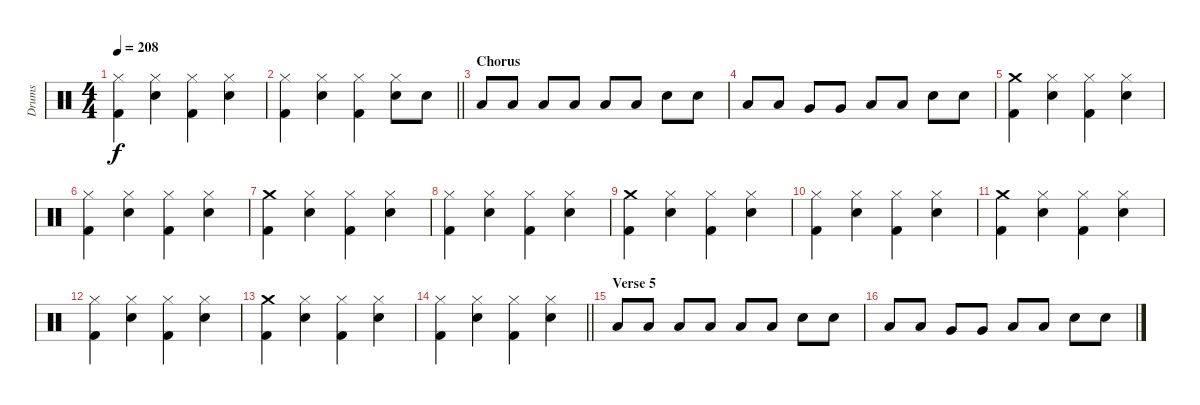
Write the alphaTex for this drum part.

\track ("Drums" "Drums") {instrument percussion}
\staff {score}
\articulation defaults
\ts (4 4)
\tempo 208
\clef neutral
\ks c
("Hi-Hat (closed)" "Kick (hit) 2").4{dy f} ("Hi-Hat (closed)" "Snare (hit) 2").4 ("Hi-Hat (closed)" "Kick (hit) 2").4 ("Hi-Hat (closed)" "Snare (hit) 2").4 |
\barLineRight lightlight
("Hi-Hat (closed)" "Kick (hit) 2").4 ("Hi-Hat (closed)" "Snare (hit) 2").4 ("Hi-Hat (closed)" "Kick (hit) 2").4 ("Hi-Hat (closed)" "Snare (hit) 2").8 "Snare (hit) 2".8 |
\section ("" "Chorus")
"Low Floor Tom (hit)".8 "Low Floor Tom (hit)".8 "Low Tom (hit)".8 "Low Tom (hit)".8 "Low Floor Tom (hit)".8 "Low Floor Tom (hit)".8 "Snare (hit) 2".8 "Snare (hit) 2".8 |
"Low Floor Tom (hit)".8 "Low Floor Tom (hit)".8 "Very Low Tom (hit)".8 "Very Low Tom (hit)".8 "Low Floor Tom (hit)".8 "Low Floor Tom (hit)".8 "Snare (hit) 2".8 "Snare (hit) 2".8 |
("Crash medium (hit)" "Kick (hit) 2").4 ("Hi-Hat (closed)" "Snare (hit) 2").4 ("Hi-Hat (closed)" "Kick (hit) 2").4 ("Hi-Hat (closed)" "Snare (hit) 2").4 |
("Hi-Hat (closed)" "Kick (hit) 2").4 ("Hi-Hat (closed)" "Snare (hit) 2").4 ("Hi-Hat (closed)" "Kick (hit) 2").4 ("Hi-Hat (closed)" "Snare (hit) 2").4 |
("Crash medium (hit)" "Kick (hit) 2").4 ("Hi-Hat (closed)" "Snare (hit) 2").4 ("Hi-Hat (closed)" "Kick (hit) 2").4 ("Hi-Hat (closed)" "Snare (hit) 2").4 |
("Hi-Hat (closed)" "Kick (hit) 2").4 ("Hi-Hat (closed)" "Snare (hit) 2").4 ("Hi-Hat (closed)" "Kick (hit) 2").4 ("Hi-Hat (closed)" "Snare (hit) 2").4 |
("Crash medium (hit)" "Kick (hit) 2").4 ("Hi-Hat (closed)" "Snare (hit) 2").4 ("Hi-Hat (closed)" "Kick (hit) 2").4 ("Hi-Hat (closed)" "Snare (hit) 2").4 |
("Hi-Hat (closed)" "Kick (hit) 2").4 ("Hi-Hat (closed)" "Snare (hit) 2").4 ("Hi-Hat (closed)" "Kick (hit) 2").4 ("Hi-Hat (closed)" "Snare (hit) 2").4 |
("Crash medium (hit)" "Kick (hit) 2").4 ("Hi-Hat (closed)" "Snare (hit) 2").4 ("Hi-Hat (closed)" "Kick (hit) 2").4 ("Hi-Hat (closed)" "Snare (hit) 2").4 |
("Hi-Hat (closed)" "Kick (hit) 2").4 ("Hi-Hat (closed)" "Snare (hit) 2").4 ("Hi-Hat (closed)" "Kick (hit) 2").4 ("Hi-Hat (closed)" "Snare (hit) 2").4 |
("Crash medium (hit)" "Kick (hit) 2").4 ("Hi-Hat (closed)" "Snare (hit) 2").4 ("Hi-Hat (closed)" "Kick (hit) 2").4 ("Hi-Hat (closed)" "Snare (hit) 2").4 |
\barLineRight lightlight
("Hi-Hat (closed)" "Kick (hit) 2").4 ("Hi-Hat (closed)" "Snare (hit) 2").4 ("Hi-Hat (closed)" "Kick (hit) 2").4 ("Hi-Hat (closed)" "Snare (hit) 2").4 |
\section ("" "Verse 5")
"Low Floor Tom (hit)".8 "Low Floor Tom (hit)".8 "Low Tom (hit)".8 "Low Tom (hit)".8 "Low Floor Tom (hit)".8 "Low Floor Tom (hit)".8 "Snare (hit) 2".8 "Snare (hit) 2".8 |
"Low Floor Tom (hit)".8 "Low Floor Tom (hit)".8 "Very Low Tom (hit)".8 "Very Low Tom (hit)".8 "Low Floor Tom (hit)".8 "Low Floor Tom (hit)".8 "Snare (hit) 2".8 "Snare (hit) 2".8
